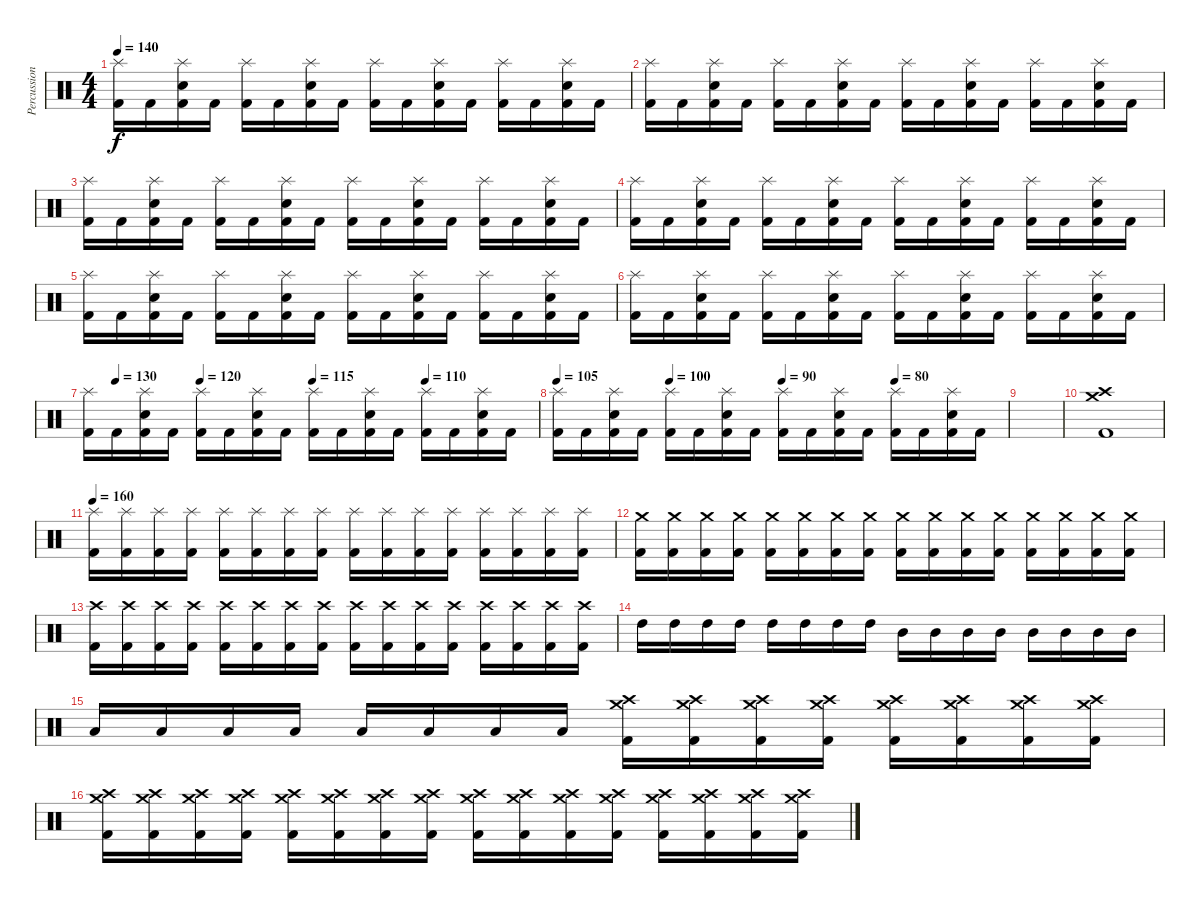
\track ("Percussion" "Percussion") {instrument percussion}
\staff {score}
\articulation defaults
\ts (4 4)
\tempo 140
\clef neutral
\ks c
("Splash (hit)" "Kick (hit) 2").16{dy f} "Kick (hit) 2".16 ("Splash (hit)" "Kick (hit) 2" "Electric Snare (hit)").16 "Kick (hit) 2".16 ("Splash (hit)" "Kick (hit) 2").16 "Kick (hit) 2".16 ("Splash (hit)" "Kick (hit) 2" "Electric Snare (hit)").16 "Kick (hit) 2".16 ("Splash (hit)" "Kick (hit) 2").16 "Kick (hit) 2".16 ("Splash (hit)" "Kick (hit) 2" "Electric Snare (hit)").16 "Kick (hit) 2".16 ("Splash (hit)" "Kick (hit) 2").16 "Kick (hit) 2".16 ("Splash (hit)" "Kick (hit) 2" "Electric Snare (hit)").16 "Kick (hit) 2".16 |
("Splash (hit)" "Kick (hit) 2").16 "Kick (hit) 2".16 ("Splash (hit)" "Kick (hit) 2" "Electric Snare (hit)").16 "Kick (hit) 2".16 ("Splash (hit)" "Kick (hit) 2").16 "Kick (hit) 2".16 ("Splash (hit)" "Kick (hit) 2" "Electric Snare (hit)").16 "Kick (hit) 2".16 ("Splash (hit)" "Kick (hit) 2").16 "Kick (hit) 2".16 ("Splash (hit)" "Kick (hit) 2" "Electric Snare (hit)").16 "Kick (hit) 2".16 ("Splash (hit)" "Kick (hit) 2").16 "Kick (hit) 2".16 ("Splash (hit)" "Kick (hit) 2" "Electric Snare (hit)").16 "Kick (hit) 2".16 |
("Splash (hit)" "Kick (hit) 2").16 "Kick (hit) 2".16 ("Splash (hit)" "Kick (hit) 2" "Electric Snare (hit)").16 "Kick (hit) 2".16 ("Splash (hit)" "Kick (hit) 2").16 "Kick (hit) 2".16 ("Splash (hit)" "Kick (hit) 2" "Electric Snare (hit)").16 "Kick (hit) 2".16 ("Splash (hit)" "Kick (hit) 2").16 "Kick (hit) 2".16 ("Splash (hit)" "Kick (hit) 2" "Electric Snare (hit)").16 "Kick (hit) 2".16 ("Splash (hit)" "Kick (hit) 2").16 "Kick (hit) 2".16 ("Splash (hit)" "Kick (hit) 2" "Electric Snare (hit)").16 "Kick (hit) 2".16 |
("Splash (hit)" "Kick (hit) 2").16 "Kick (hit) 2".16 ("Splash (hit)" "Kick (hit) 2" "Electric Snare (hit)").16 "Kick (hit) 2".16 ("Splash (hit)" "Kick (hit) 2").16 "Kick (hit) 2".16 ("Splash (hit)" "Kick (hit) 2" "Electric Snare (hit)").16 "Kick (hit) 2".16 ("Splash (hit)" "Kick (hit) 2").16 "Kick (hit) 2".16 ("Splash (hit)" "Kick (hit) 2" "Electric Snare (hit)").16 "Kick (hit) 2".16 ("Splash (hit)" "Kick (hit) 2").16 "Kick (hit) 2".16 ("Splash (hit)" "Kick (hit) 2" "Electric Snare (hit)").16 "Kick (hit) 2".16 |
("Splash (hit)" "Kick (hit) 2").16 "Kick (hit) 2".16 ("Splash (hit)" "Kick (hit) 2" "Electric Snare (hit)").16 "Kick (hit) 2".16 ("Splash (hit)" "Kick (hit) 2").16 "Kick (hit) 2".16 ("Splash (hit)" "Kick (hit) 2" "Electric Snare (hit)").16 "Kick (hit) 2".16 ("Splash (hit)" "Kick (hit) 2").16 "Kick (hit) 2".16 ("Splash (hit)" "Kick (hit) 2" "Electric Snare (hit)").16 "Kick (hit) 2".16 ("Splash (hit)" "Kick (hit) 2").16 "Kick (hit) 2".16 ("Splash (hit)" "Kick (hit) 2" "Electric Snare (hit)").16 "Kick (hit) 2".16 |
("Splash (hit)" "Kick (hit) 2").16 "Kick (hit) 2".16 ("Splash (hit)" "Kick (hit) 2" "Electric Snare (hit)").16 "Kick (hit) 2".16 ("Splash (hit)" "Kick (hit) 2").16 "Kick (hit) 2".16 ("Splash (hit)" "Kick (hit) 2" "Electric Snare (hit)").16 "Kick (hit) 2".16 ("Splash (hit)" "Kick (hit) 2").16 "Kick (hit) 2".16 ("Splash (hit)" "Kick (hit) 2" "Electric Snare (hit)").16 "Kick (hit) 2".16 ("Splash (hit)" "Kick (hit) 2").16 "Kick (hit) 2".16 ("Splash (hit)" "Kick (hit) 2" "Electric Snare (hit)").16 "Kick (hit) 2".16 |
\tempo (130 0.0625)
\tempo (120 0.25)
\tempo (115 0.5)
\tempo (110 0.75)
("Splash (hit)" "Kick (hit) 2").16 "Kick (hit) 2".16 ("Splash (hit)" "Kick (hit) 2" "Electric Snare (hit)").16 "Kick (hit) 2".16 ("Splash (hit)" "Kick (hit) 2").16 "Kick (hit) 2".16 ("Splash (hit)" "Kick (hit) 2" "Electric Snare (hit)").16 "Kick (hit) 2".16 ("Splash (hit)" "Kick (hit) 2").16 "Kick (hit) 2".16 ("Splash (hit)" "Kick (hit) 2" "Electric Snare (hit)").16 "Kick (hit) 2".16 ("Splash (hit)" "Kick (hit) 2").16 "Kick (hit) 2".16 ("Splash (hit)" "Kick (hit) 2" "Electric Snare (hit)").16 "Kick (hit) 2".16 |
\tempo 105
\tempo (100 0.25)
\tempo (90 0.5)
\tempo (80 0.75)
("Splash (hit)" "Kick (hit) 2").16 "Kick (hit) 2".16 ("Splash (hit)" "Kick (hit) 2" "Electric Snare (hit)").16 "Kick (hit) 2".16 ("Splash (hit)" "Kick (hit) 2").16 "Kick (hit) 2".16 ("Splash (hit)" "Kick (hit) 2" "Electric Snare (hit)").16 "Kick (hit) 2".16 ("Splash (hit)" "Kick (hit) 2").16 "Kick (hit) 2".16 ("Splash (hit)" "Kick (hit) 2" "Electric Snare (hit)").16 "Kick (hit) 2".16 ("Splash (hit)" "Kick (hit) 2").16 "Kick (hit) 2".16 ("Splash (hit)" "Kick (hit) 2" "Electric Snare (hit)").16 "Kick (hit) 2".16 |
|
("Crash high (hit)" "Crash medium (hit)" "Kick (hit) 2").1 |
\tempo 160
("Splash (hit)" "Kick (hit) 2").16 ("Splash (hit)" "Kick (hit) 2").16 ("Splash (hit)" "Kick (hit) 2").16 ("Splash (hit)" "Kick (hit) 2").16 ("Splash (hit)" "Kick (hit) 2").16 ("Splash (hit)" "Kick (hit) 2").16 ("Splash (hit)" "Kick (hit) 2").16 ("Splash (hit)" "Kick (hit) 2").16 ("Splash (hit)" "Kick (hit) 2").16 ("Splash (hit)" "Kick (hit) 2").16 ("Splash (hit)" "Kick (hit) 2").16 ("Splash (hit)" "Kick (hit) 2").16 ("Splash (hit)" "Kick (hit) 2").16 ("Splash (hit)" "Kick (hit) 2").16 ("Splash (hit)" "Kick (hit) 2").16 ("Splash (hit)" "Kick (hit) 2").16 |
("Crash medium (hit)" "Kick (hit) 2").16 ("Crash medium (hit)" "Kick (hit) 2").16 ("Crash medium (hit)" "Kick (hit) 2").16 ("Crash medium (hit)" "Kick (hit) 2").16 ("Crash medium (hit)" "Kick (hit) 2").16 ("Crash medium (hit)" "Kick (hit) 2").16 ("Crash medium (hit)" "Kick (hit) 2").16 ("Crash medium (hit)" "Kick (hit) 2").16 ("Crash medium (hit)" "Kick (hit) 2").16 ("Crash medium (hit)" "Kick (hit) 2").16 ("Crash medium (hit)" "Kick (hit) 2").16 ("Crash medium (hit)" "Kick (hit) 2").16 ("Crash medium (hit)" "Kick (hit) 2").16 ("Crash medium (hit)" "Kick (hit) 2").16 ("Crash medium (hit)" "Kick (hit) 2").16 ("Crash medium (hit)" "Kick (hit) 2").16 |
("Crash high (hit)" "Kick (hit) 2").16 ("Crash high (hit)" "Kick (hit) 2").16 ("Crash high (hit)" "Kick (hit) 2").16 ("Crash high (hit)" "Kick (hit) 2").16 ("Crash high (hit)" "Kick (hit) 2").16 ("Crash high (hit)" "Kick (hit) 2").16 ("Crash high (hit)" "Kick (hit) 2").16 ("Crash high (hit)" "Kick (hit) 2").16 ("Crash high (hit)" "Kick (hit) 2").16 ("Crash high (hit)" "Kick (hit) 2").16 ("Crash high (hit)" "Kick (hit) 2").16 ("Crash high (hit)" "Kick (hit) 2").16 ("Crash high (hit)" "Kick (hit) 2").16 ("Crash high (hit)" "Kick (hit) 2").16 ("Crash high (hit)" "Kick (hit) 2").16 ("Crash high (hit)" "Kick (hit) 2").16 |
"High Tom (hit)".16 "High Tom (hit)".16 "High Tom (hit)".16 "High Tom (hit)".16 "High Tom (hit)".16 "High Tom (hit)".16 "High Tom (hit)".16 "High Tom (hit)".16 "Mid Tom (hit)".16 "Mid Tom (hit)".16 "Mid Tom (hit)".16 "Mid Tom (hit)".16 "Mid Tom (hit)".16 "Mid Tom (hit)".16 "Mid Tom (hit)".16 "Mid Tom (hit)".16 |
"Low Tom (hit)".16 "Low Tom (hit)".16 "Low Tom (hit)".16 "Low Tom (hit)".16 "Low Tom (hit)".16 "Low Tom (hit)".16 "Low Tom (hit)".16 "Low Tom (hit)".16 ("Crash high (hit)" "Crash medium (hit)" "Kick (hit) 2").16 ("Crash high (hit)" "Crash medium (hit)" "Kick (hit) 2").16 ("Crash high (hit)" "Crash medium (hit)" "Kick (hit) 2").16 ("Crash high (hit)" "Crash medium (hit)" "Kick (hit) 2").16 ("Crash high (hit)" "Crash medium (hit)" "Kick (hit) 2").16 ("Crash high (hit)" "Crash medium (hit)" "Kick (hit) 2").16 ("Crash high (hit)" "Crash medium (hit)" "Kick (hit) 2").16 ("Crash high (hit)" "Crash medium (hit)" "Kick (hit) 2").16 |
("Crash high (hit)" "Crash medium (hit)" "Kick (hit) 2").16 ("Crash high (hit)" "Crash medium (hit)" "Kick (hit) 2").16 ("Crash high (hit)" "Crash medium (hit)" "Kick (hit) 2").16 ("Crash high (hit)" "Crash medium (hit)" "Kick (hit) 2").16 ("Crash high (hit)" "Crash medium (hit)" "Kick (hit) 2").16 ("Crash high (hit)" "Crash medium (hit)" "Kick (hit) 2").16 ("Crash high (hit)" "Crash medium (hit)" "Kick (hit) 2").16 ("Crash high (hit)" "Crash medium (hit)" "Kick (hit) 2").16 ("Crash high (hit)" "Crash medium (hit)" "Kick (hit) 2").16 ("Crash high (hit)" "Crash medium (hit)" "Kick (hit) 2").16 ("Crash high (hit)" "Crash medium (hit)" "Kick (hit) 2").16 ("Crash high (hit)" "Crash medium (hit)" "Kick (hit) 2").16 ("Crash high (hit)" "Crash medium (hit)" "Kick (hit) 2").16 ("Crash high (hit)" "Crash medium (hit)" "Kick (hit) 2").16 ("Crash high (hit)" "Crash medium (hit)" "Kick (hit) 2").16 ("Crash high (hit)" "Crash medium (hit)" "Kick (hit) 2").16
